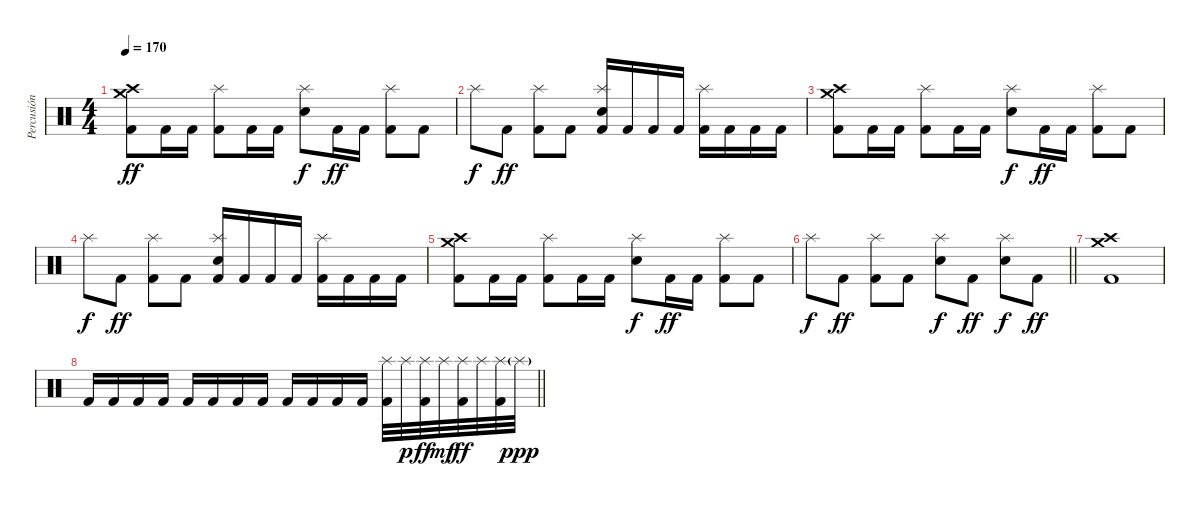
\track ("Percusión" "Percusión") {instrument percussion}
\staff {score}
\articulation defaults
\ts (4 4)
\tempo 170
\clef neutral
\ks c
("Crash medium (hit)" "Crash high (hit)" "Kick (hit) 2").8{dy ff} "Kick (hit) 2".16 "Kick (hit) 2".16 ("Splash (hit)" "Kick (hit) 2").8 "Kick (hit) 2".16 "Kick (hit) 2".16 ("Splash (hit)" "Snare (hit) 2").8{dy f} "Kick (hit) 2".16{dy ff} "Kick (hit) 2".16 ("Splash (hit)" "Kick (hit) 2").8 "Kick (hit) 2".8 |
"Splash (hit)".8{dy f} "Kick (hit) 2".8{dy ff} ("Splash (hit)" "Kick (hit) 2").8 "Kick (hit) 2".8 ("Splash (hit)" "Snare (hit) 2" "Kick (hit) 2").16 "Kick (hit) 2".16 "Kick (hit) 2".16 "Kick (hit) 2".16 ("Splash (hit)" "Kick (hit) 2").16 "Kick (hit) 2".16 "Kick (hit) 2".16 "Kick (hit) 2".16 |
("Crash medium (hit)" "Crash high (hit)" "Kick (hit) 2").8 "Kick (hit) 2".16 "Kick (hit) 2".16 ("Splash (hit)" "Kick (hit) 2").8 "Kick (hit) 2".16 "Kick (hit) 2".16 ("Splash (hit)" "Snare (hit) 2").8{dy f} "Kick (hit) 2".16{dy ff} "Kick (hit) 2".16 ("Splash (hit)" "Kick (hit) 2").8 "Kick (hit) 2".8 |
"Splash (hit)".8{dy f} "Kick (hit) 2".8{dy ff} ("Splash (hit)" "Kick (hit) 2").8 "Kick (hit) 2".8 ("Splash (hit)" "Snare (hit) 2" "Kick (hit) 2").16 "Kick (hit) 2".16 "Kick (hit) 2".16 "Kick (hit) 2".16 ("Splash (hit)" "Kick (hit) 2").16 "Kick (hit) 2".16 "Kick (hit) 2".16 "Kick (hit) 2".16 |
("Crash medium (hit)" "Crash high (hit)" "Kick (hit) 2").8 "Kick (hit) 2".16 "Kick (hit) 2".16 ("Splash (hit)" "Kick (hit) 2").8 "Kick (hit) 2".16 "Kick (hit) 2".16 ("Splash (hit)" "Snare (hit) 2").8{dy f} "Kick (hit) 2".16{dy ff} "Kick (hit) 2".16 ("Splash (hit)" "Kick (hit) 2").8 "Kick (hit) 2".8 |
\barLineRight lightlight "Splash (hit)".8{dy f} "Kick (hit) 2".8{dy ff}
("Splash (hit)" "Kick (hit) 2").8 "Kick (hit) 2".8 ("Splash (hit)" "Snare (hit) 2").8{dy f} "Kick (hit) 2".8{dy ff} ("Splash (hit)" "Snare (hit) 2").8{dy f} "Kick (hit) 2".8{dy ff} |
("Crash medium (hit)" "Crash high (hit)" "Kick (hit) 2").1 |
\barLineRight lightlight "Kick (hit) 2".16 "Kick (hit) 2".16 "Kick (hit) 2".16 "Kick (hit) 2".16 "Kick (hit) 2".16 "Kick (hit) 2".16 "Kick (hit) 2".16 "Kick (hit) 2".16 "Kick (hit) 2".16 "Kick (hit) 2".16 "Kick (hit) 2".16 "Kick (hit) 2".16
("Splash (hit)" "Kick (hit) 2").32 "Splash (hit)".32{dy p} ("Splash (hit)" "Kick (hit) 2").32{dy ff} "Splash (hit)".32{dy mf} ("Splash (hit)" "Kick (hit) 2").32{dy ff} "Splash (hit)".32 ("Splash (hit)" "Kick (hit) 2").32 "Splash (hit)"{g}.32{dy ppp}
